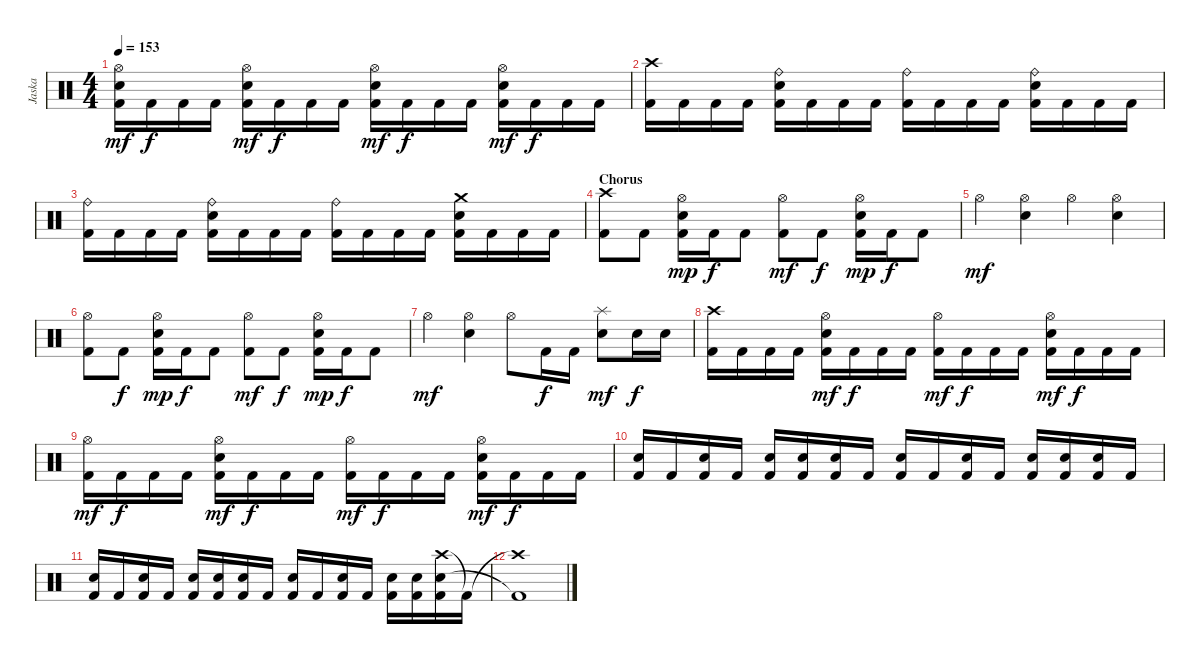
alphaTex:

\track ("Jaska" "Jaska") {instrument percussion}
\staff {score}
\articulation defaults
\ts (4 4)
\tempo 153
\clef neutral
\ks c
("Hi-Hat (open)" "Electric Snare (hit)" "Kick (hit) 2").16{dy mf} "Kick (hit) 2".16{dy f} "Kick (hit) 2".16 "Kick (hit) 2".16 ("Hi-Hat (open)" "Electric Snare (hit)" "Kick (hit) 2").16{dy mf} "Kick (hit) 2".16{dy f} "Kick (hit) 2".16 "Kick (hit) 2".16 ("Hi-Hat (open)" "Electric Snare (hit)" "Kick (hit) 2").16{dy mf} "Kick (hit) 2".16{dy f} "Kick (hit) 2".16 "Kick (hit) 2".16 ("Hi-Hat (open)" "Electric Snare (hit)" "Kick (hit) 2").16{dy mf} "Kick (hit) 2".16{dy f} "Kick (hit) 2".16 "Kick (hit) 2".16 |
("Crash high (hit)" "Kick (hit) 2").16 "Kick (hit) 2".16 "Kick (hit) 2".16 "Kick (hit) 2".16 ("Ride (bell)" "Electric Snare (hit)" "Kick (hit) 2").16 "Kick (hit) 2".16 "Kick (hit) 2".16 "Kick (hit) 2".16 ("Ride (bell)" "Kick (hit) 2").16 "Kick (hit) 2".16 "Kick (hit) 2".16 "Kick (hit) 2".16 ("Ride (bell)" "Electric Snare (hit)" "Kick (hit) 2").16 "Kick (hit) 2".16 "Kick (hit) 2".16 "Kick (hit) 2".16 |
("Ride (bell)" "Kick (hit) 2").16 "Kick (hit) 2".16 "Kick (hit) 2".16 "Kick (hit) 2".16 ("Ride (bell)" "Electric Snare (hit)" "Kick (hit) 2").16 "Kick (hit) 2".16 "Kick (hit) 2".16 "Kick (hit) 2".16 ("Ride (bell)" "Kick (hit) 2").16 "Kick (hit) 2".16 "Kick (hit) 2".16 "Kick (hit) 2".16 ("Crash medium (hit)" "Electric Snare (hit)" "Kick (hit) 2").16 "Kick (hit) 2".16 "Kick (hit) 2".16 "Kick (hit) 2".16 |
\section ("" "Chorus")
("Crash high (hit)" "Kick (hit) 2").8 "Kick (hit) 2".8 ("Hi-Hat (open)" "Electric Snare (hit)" "Kick (hit) 2").16{dy mp} "Kick (hit) 2".16{dy f} "Kick (hit) 2".8 ("Hi-Hat (open)" "Kick (hit) 2").8{dy mf} "Kick (hit) 2".8{dy f} ("Hi-Hat (open)" "Electric Snare (hit)" "Kick (hit) 2").16{dy mp} "Kick (hit) 2".16{dy f} "Kick (hit) 2".8 |
"Hi-Hat (open)".4{dy mf} ("Hi-Hat (open)" "Electric Snare (hit)").4 "Hi-Hat (open)".4 ("Hi-Hat (open)" "Electric Snare (hit)").4 |
("Hi-Hat (open)" "Kick (hit) 2").8 "Kick (hit) 2".8{dy f} ("Hi-Hat (open)" "Electric Snare (hit)" "Kick (hit) 2").16{dy mp} "Kick (hit) 2".16{dy f} "Kick (hit) 2".8 ("Hi-Hat (open)" "Kick (hit) 2").8{dy mf} "Kick (hit) 2".8{dy f} ("Hi-Hat (open)" "Electric Snare (hit)" "Kick (hit) 2").16{dy mp} "Kick (hit) 2".16{dy f} "Kick (hit) 2".8 |
"Hi-Hat (open)".4{dy mf} ("Hi-Hat (open)" "Electric Snare (hit)").4 "Hi-Hat (open)".8 "Kick (hit) 2".16{dy f} "Kick (hit) 2".16 ("Splash (hit)" "Electric Snare (hit)").8{dy mf} "Electric Snare (hit)".16{dy f} "Electric Snare (hit)".16 |
("Crash high (hit)" "Kick (hit) 2").16 "Kick (hit) 2".16 "Kick (hit) 2".16 "Kick (hit) 2".16 ("Hi-Hat (open)" "Electric Snare (hit)" "Kick (hit) 2").16{dy mf} "Kick (hit) 2".16{dy f} "Kick (hit) 2".16 "Kick (hit) 2".16 ("Hi-Hat (open)" "Kick (hit) 2").16{dy mf} "Kick (hit) 2".16{dy f} "Kick (hit) 2".16 "Kick (hit) 2".16 ("Hi-Hat (open)" "Electric Snare (hit)" "Kick (hit) 2").16{dy mf} "Kick (hit) 2".16{dy f} "Kick (hit) 2".16 "Kick (hit) 2".16 |
("Hi-Hat (open)" "Kick (hit) 2").16{dy mf} "Kick (hit) 2".16{dy f} "Kick (hit) 2".16 "Kick (hit) 2".16 ("Hi-Hat (open)" "Electric Snare (hit)" "Kick (hit) 2").16{dy mf} "Kick (hit) 2".16{dy f} "Kick (hit) 2".16 "Kick (hit) 2".16 ("Hi-Hat (open)" "Kick (hit) 2").16{dy mf} "Kick (hit) 2".16{dy f} "Kick (hit) 2".16 "Kick (hit) 2".16 ("Hi-Hat (open)" "Electric Snare (hit)" "Kick (hit) 2").16{dy mf} "Kick (hit) 2".16{dy f} "Kick (hit) 2".16 "Kick (hit) 2".16 |
("Electric Snare (hit)" "Kick (hit) 2").16 "Kick (hit) 2".16 ("Electric Snare (hit)" "Kick (hit) 2").16 "Kick (hit) 2".16 ("Electric Snare (hit)" "Kick (hit) 2").16 ("Electric Snare (hit)" "Kick (hit) 2").16 ("Electric Snare (hit)" "Kick (hit) 2").16 "Kick (hit) 2".16 ("Electric Snare (hit)" "Kick (hit) 2").16 "Kick (hit) 2".16 ("Electric Snare (hit)" "Kick (hit) 2").16 "Kick (hit) 2".16 ("Electric Snare (hit)" "Kick (hit) 2").16 ("Electric Snare (hit)" "Kick (hit) 2").16 ("Electric Snare (hit)" "Kick (hit) 2").16 "Kick (hit) 2".16 |
("Electric Snare (hit)" "Kick (hit) 2").16 "Kick (hit) 2".16 ("Electric Snare (hit)" "Kick (hit) 2").16 "Kick (hit) 2".16 ("Electric Snare (hit)" "Kick (hit) 2").16 ("Electric Snare (hit)" "Kick (hit) 2").16 ("Electric Snare (hit)" "Kick (hit) 2").16 "Kick (hit) 2".16 ("Electric Snare (hit)" "Kick (hit) 2").16 "Kick (hit) 2".16 ("Electric Snare (hit)" "Kick (hit) 2").16 "Kick (hit) 2".16 ("Electric Snare (hit)" "Kick (hit) 2").16 ("Electric Snare (hit)" "Kick (hit) 2").16 ("Crash high (hit)" "Electric Snare (hit)" "Kick (hit) 2").16 "Kick (hit) 2"{t}.16 |
("Crash high (hit)"{t} "Kick (hit) 2"{t}).1
